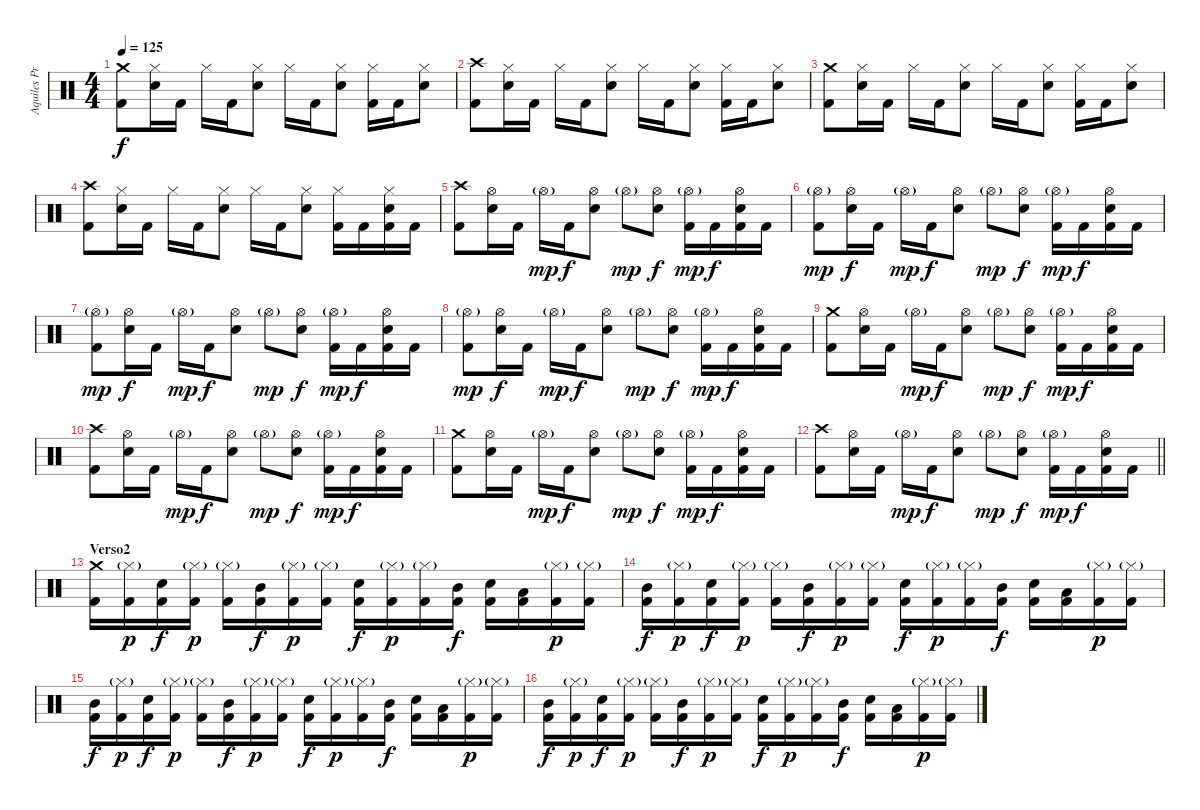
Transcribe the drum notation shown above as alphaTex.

\track ("Aquiles Priester" "Aquiles Pr") {instrument percussion}
\staff {score}
\articulation defaults
\ts (4 4)
\tempo 125
\clef neutral
\ks c
("Crash medium (hit)" "Kick (hit) 2").8{dy f} ("Hi-Hat (closed)" "Electric Snare (hit)").16 "Kick (hit) 2".16 "Hi-Hat (closed)".16 "Kick (hit) 2".16 ("Hi-Hat (closed)" "Electric Snare (hit)").8 "Hi-Hat (closed)".16 "Kick (hit) 2".16 ("Hi-Hat (closed)" "Electric Snare (hit)").8 ("Hi-Hat (closed)" "Kick (hit) 2").16 "Kick (hit) 2".16 ("Hi-Hat (closed)" "Electric Snare (hit)").8 |
("Crash high (hit)" "Kick (hit) 2").8 ("Hi-Hat (closed)" "Electric Snare (hit)").16 "Kick (hit) 2".16 "Hi-Hat (closed)".16 "Kick (hit) 2".16 ("Hi-Hat (closed)" "Electric Snare (hit)").8 "Hi-Hat (closed)".16 "Kick (hit) 2".16 ("Hi-Hat (closed)" "Electric Snare (hit)").8 ("Hi-Hat (closed)" "Kick (hit) 2").16 "Kick (hit) 2".16 ("Hi-Hat (closed)" "Electric Snare (hit)").8 |
("Crash medium (hit)" "Kick (hit) 2").8 ("Hi-Hat (closed)" "Electric Snare (hit)").16 "Kick (hit) 2".16 "Hi-Hat (closed)".16 "Kick (hit) 2".16 ("Hi-Hat (closed)" "Electric Snare (hit)").8 "Hi-Hat (closed)".16 "Kick (hit) 2".16 ("Hi-Hat (closed)" "Electric Snare (hit)").8 ("Hi-Hat (closed)" "Kick (hit) 2").16 "Kick (hit) 2".16 ("Hi-Hat (closed)" "Electric Snare (hit)").8 |
("Crash high (hit)" "Kick (hit) 2").8 ("Hi-Hat (closed)" "Electric Snare (hit)").16 "Kick (hit) 2".16 "Hi-Hat (closed)".16 "Kick (hit) 2".16 ("Hi-Hat (closed)" "Electric Snare (hit)").8 "Hi-Hat (closed)".16 "Kick (hit) 2".16 ("Hi-Hat (closed)" "Electric Snare (hit)").8 ("Hi-Hat (closed)" "Kick (hit) 2").16 "Kick (hit) 2".16 ("Hi-Hat (closed)" "Electric Snare (hit)" "Kick (hit) 2").16 "Kick (hit) 2".16 |
("Crash high (hit)" "Kick (hit) 2").8 ("Hi-Hat (open)" "Electric Snare (hit)").16 "Kick (hit) 2".16 "Hi-Hat (open)"{g}.16{dy mp} "Kick (hit) 2".16{dy f} ("Hi-Hat (open)" "Electric Snare (hit)").8 "Hi-Hat (open)"{g}.8{dy mp} ("Hi-Hat (open)" "Electric Snare (hit)").8{dy f} ("Hi-Hat (open)"{g} "Kick (hit) 2").16{dy mp} "Kick (hit) 2".16{dy f} ("Hi-Hat (open)" "Electric Snare (hit)" "Kick (hit) 2").16 "Kick (hit) 2".16 |
("Hi-Hat (open)"{g} "Kick (hit) 2").8{dy mp} ("Hi-Hat (open)" "Electric Snare (hit)").16{dy f} "Kick (hit) 2".16 "Hi-Hat (open)"{g}.16{dy mp} "Kick (hit) 2".16{dy f} ("Hi-Hat (open)" "Electric Snare (hit)").8 "Hi-Hat (open)"{g}.8{dy mp} ("Hi-Hat (open)" "Electric Snare (hit)").8{dy f} ("Hi-Hat (open)"{g} "Kick (hit) 2").16{dy mp} "Kick (hit) 2".16{dy f} ("Hi-Hat (open)" "Electric Snare (hit)" "Kick (hit) 2").16 "Kick (hit) 2".16 |
("Hi-Hat (open)"{g} "Kick (hit) 2").8{dy mp} ("Hi-Hat (open)" "Electric Snare (hit)").16{dy f} "Kick (hit) 2".16 "Hi-Hat (open)"{g}.16{dy mp} "Kick (hit) 2".16{dy f} ("Hi-Hat (open)" "Electric Snare (hit)").8 "Hi-Hat (open)"{g}.8{dy mp} ("Hi-Hat (open)" "Electric Snare (hit)").8{dy f} ("Hi-Hat (open)"{g} "Kick (hit) 2").16{dy mp} "Kick (hit) 2".16{dy f} ("Hi-Hat (open)" "Electric Snare (hit)" "Kick (hit) 2").16 "Kick (hit) 2".16 |
("Hi-Hat (open)"{g} "Kick (hit) 2").8{dy mp} ("Hi-Hat (open)" "Electric Snare (hit)").16{dy f} "Kick (hit) 2".16 "Hi-Hat (open)"{g}.16{dy mp} "Kick (hit) 2".16{dy f} ("Hi-Hat (open)" "Electric Snare (hit)").8 "Hi-Hat (open)"{g}.8{dy mp} ("Hi-Hat (open)" "Electric Snare (hit)").8{dy f} ("Hi-Hat (open)"{g} "Kick (hit) 2").16{dy mp} "Kick (hit) 2".16{dy f} ("Hi-Hat (open)" "Electric Snare (hit)" "Kick (hit) 2").16 "Kick (hit) 2".16 |
("Crash medium (hit)" "Kick (hit) 2").8 ("Hi-Hat (open)" "Electric Snare (hit)").16 "Kick (hit) 2".16 "Hi-Hat (open)"{g}.16{dy mp} "Kick (hit) 2".16{dy f} ("Hi-Hat (open)" "Electric Snare (hit)").8 "Hi-Hat (open)"{g}.8{dy mp} ("Hi-Hat (open)" "Electric Snare (hit)").8{dy f} ("Hi-Hat (open)"{g} "Kick (hit) 2").16{dy mp} "Kick (hit) 2".16{dy f} ("Hi-Hat (open)" "Electric Snare (hit)" "Kick (hit) 2").16 "Kick (hit) 2".16 |
("Crash high (hit)" "Kick (hit) 2").8 ("Hi-Hat (open)" "Electric Snare (hit)").16 "Kick (hit) 2".16 "Hi-Hat (open)"{g}.16{dy mp} "Kick (hit) 2".16{dy f} ("Hi-Hat (open)" "Electric Snare (hit)").8 "Hi-Hat (open)"{g}.8{dy mp} ("Hi-Hat (open)" "Electric Snare (hit)").8{dy f} ("Hi-Hat (open)"{g} "Kick (hit) 2").16{dy mp} "Kick (hit) 2".16{dy f} ("Hi-Hat (open)" "Electric Snare (hit)" "Kick (hit) 2").16 "Kick (hit) 2".16 |
("Crash medium (hit)" "Kick (hit) 2").8 ("Hi-Hat (open)" "Electric Snare (hit)").16 "Kick (hit) 2".16 "Hi-Hat (open)"{g}.16{dy mp} "Kick (hit) 2".16{dy f} ("Hi-Hat (open)" "Electric Snare (hit)").8 "Hi-Hat (open)"{g}.8{dy mp} ("Hi-Hat (open)" "Electric Snare (hit)").8{dy f} ("Hi-Hat (open)"{g} "Kick (hit) 2").16{dy mp} "Kick (hit) 2".16{dy f} ("Hi-Hat (open)" "Electric Snare (hit)" "Kick (hit) 2").16 "Kick (hit) 2".16 |
\barLineRight lightlight
("Crash high (hit)" "Kick (hit) 2").8 ("Hi-Hat (open)" "Electric Snare (hit)").16 "Kick (hit) 2".16 "Hi-Hat (open)"{g}.16{dy mp} "Kick (hit) 2".16{dy f} ("Hi-Hat (open)" "Electric Snare (hit)").8 "Hi-Hat (open)"{g}.8{dy mp} ("Hi-Hat (open)" "Electric Snare (hit)").8{dy f} ("Hi-Hat (open)"{g} "Kick (hit) 2").16{dy mp} "Kick (hit) 2".16{dy f} ("Hi-Hat (open)" "Electric Snare (hit)" "Kick (hit) 2").16 "Kick (hit) 2".16 |
\section ("" "Verso2")
("Crash medium (hit)" "Kick (hit) 2").16 ("Hi-Hat (closed)"{g} "Kick (hit) 2").16{dy p} ("Electric Snare (hit)" "Kick (hit) 2").16{dy f} ("Hi-Hat (closed)"{g} "Kick (hit) 2").16{dy p} ("Hi-Hat (closed)"{g} "Kick (hit) 2").16 ("Mid Tom (hit)" "Kick (hit) 2").16{dy f} ("Hi-Hat (closed)"{g} "Kick (hit) 2").16{dy p} ("Hi-Hat (closed)"{g} "Kick (hit) 2").16 ("Electric Snare (hit)" "Kick (hit) 2").16{dy f} ("Hi-Hat (closed)"{g} "Kick (hit) 2").16{dy p} ("Hi-Hat (closed)"{g} "Kick (hit) 2").16 ("Mid Tom (hit)" "Kick (hit) 2").16{dy f} ("Electric Snare (hit)" "Kick (hit) 2").16 ("Low Tom (hit)" "Kick (hit) 2").16 ("Hi-Hat (closed)"{g} "Kick (hit) 2").16{dy p} ("Hi-Hat (closed)"{g} "Kick (hit) 2").16 |
("Mid Tom (hit)" "Kick (hit) 2").16{dy f} ("Hi-Hat (closed)"{g} "Kick (hit) 2").16{dy p} ("Electric Snare (hit)" "Kick (hit) 2").16{dy f} ("Hi-Hat (closed)"{g} "Kick (hit) 2").16{dy p} ("Hi-Hat (closed)"{g} "Kick (hit) 2").16 ("Mid Tom (hit)" "Kick (hit) 2").16{dy f} ("Hi-Hat (closed)"{g} "Kick (hit) 2").16{dy p} ("Hi-Hat (closed)"{g} "Kick (hit) 2").16 ("Electric Snare (hit)" "Kick (hit) 2").16{dy f} ("Hi-Hat (closed)"{g} "Kick (hit) 2").16{dy p} ("Hi-Hat (closed)"{g} "Kick (hit) 2").16 ("Mid Tom (hit)" "Kick (hit) 2").16{dy f} ("Electric Snare (hit)" "Kick (hit) 2").16 ("Low Tom (hit)" "Kick (hit) 2").16 ("Hi-Hat (closed)"{g} "Kick (hit) 2").16{dy p} ("Hi-Hat (closed)"{g} "Kick (hit) 2").16 |
("Mid Tom (hit)" "Kick (hit) 2").16{dy f} ("Hi-Hat (closed)"{g} "Kick (hit) 2").16{dy p} ("Electric Snare (hit)" "Kick (hit) 2").16{dy f} ("Hi-Hat (closed)"{g} "Kick (hit) 2").16{dy p} ("Hi-Hat (closed)"{g} "Kick (hit) 2").16 ("Mid Tom (hit)" "Kick (hit) 2").16{dy f} ("Hi-Hat (closed)"{g} "Kick (hit) 2").16{dy p} ("Hi-Hat (closed)"{g} "Kick (hit) 2").16 ("Electric Snare (hit)" "Kick (hit) 2").16{dy f} ("Hi-Hat (closed)"{g} "Kick (hit) 2").16{dy p} ("Hi-Hat (closed)"{g} "Kick (hit) 2").16 ("Mid Tom (hit)" "Kick (hit) 2").16{dy f} ("Electric Snare (hit)" "Kick (hit) 2").16 ("Low Tom (hit)" "Kick (hit) 2").16 ("Hi-Hat (closed)"{g} "Kick (hit) 2").16{dy p} ("Hi-Hat (closed)"{g} "Kick (hit) 2").16 |
("Mid Tom (hit)" "Kick (hit) 2").16{dy f} ("Hi-Hat (closed)"{g} "Kick (hit) 2").16{dy p} ("Electric Snare (hit)" "Kick (hit) 2").16{dy f} ("Hi-Hat (closed)"{g} "Kick (hit) 2").16{dy p} ("Hi-Hat (closed)"{g} "Kick (hit) 2").16 ("Mid Tom (hit)" "Kick (hit) 2").16{dy f} ("Hi-Hat (closed)"{g} "Kick (hit) 2").16{dy p} ("Hi-Hat (closed)"{g} "Kick (hit) 2").16 ("Electric Snare (hit)" "Kick (hit) 2").16{dy f} ("Hi-Hat (closed)"{g} "Kick (hit) 2").16{dy p} ("Hi-Hat (closed)"{g} "Kick (hit) 2").16 ("Mid Tom (hit)" "Kick (hit) 2").16{dy f} ("Electric Snare (hit)" "Kick (hit) 2").16 ("Low Tom (hit)" "Kick (hit) 2").16 ("Hi-Hat (closed)"{g} "Kick (hit) 2").16{dy p} ("Hi-Hat (closed)"{g} "Kick (hit) 2").16
